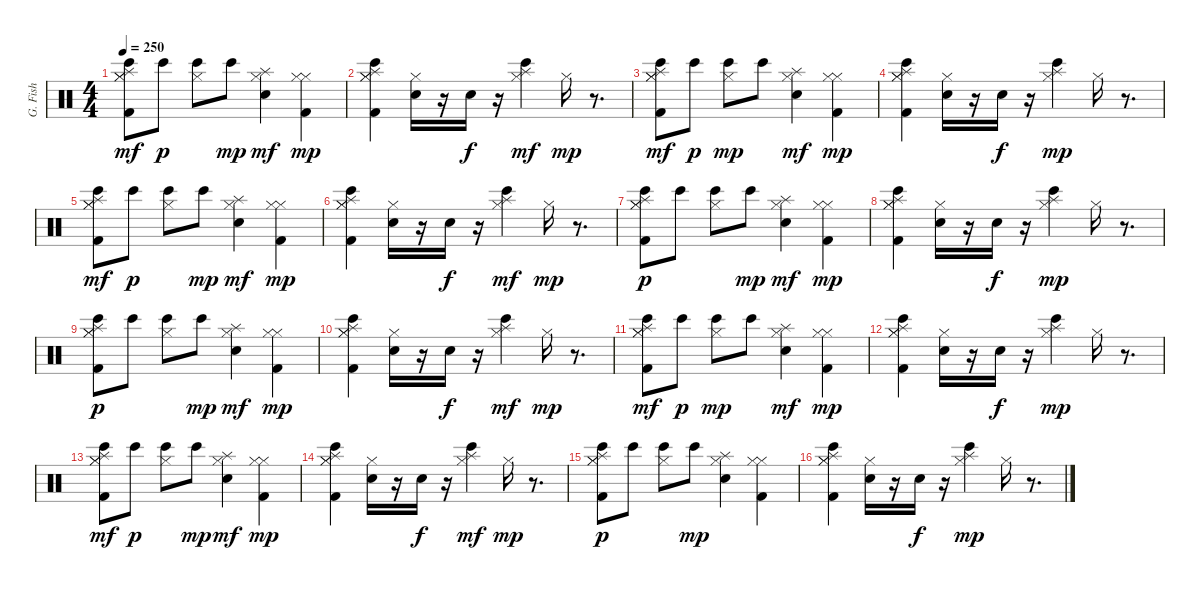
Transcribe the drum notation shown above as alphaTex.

\track ("G. Fish" "G. Fish") {instrument percussion}
\staff {score}
\articulation defaults
\ts (4 4)
\tempo 250
\clef neutral
\ks c
("Kick (hit) 2" "Hi-Hat (closed)" "Hi-Hat (closed)" "Bongo High (hit)" "Splash (hit)").8{dy mf} "Bongo High (hit)".8{dy p} ("Hi-Hat (closed)" "Bongo High (hit)").8 "Bongo High (hit)".8{dy mp} ("Hi-Hat (closed)" "Electric Snare (hit)" "Splash (hit)").4{dy mf} ("Kick (hit) 2" "Hi-Hat (closed)" "Hi-Hat (closed)").4{dy mp} |
("Kick (hit) 2" "Hi-Hat (closed)" "Hi-Hat (closed)" "Splash (hit)" "Bongo High (hit)").4 ("Electric Snare (hit)" "Hi-Hat (closed)").16 r.16 "Electric Snare (hit)".16{dy f} r.16 ("Hi-Hat (closed)" "Bongo High (hit)" "Splash (hit)").4{dy mf} "Hi-Hat (closed)".16{dy mp} r.8{d} |
("Bongo High (hit)" "Hi-Hat (closed)" "Kick (hit) 2" "Hi-Hat (closed)" "Splash (hit)").8{dy mf} "Bongo High (hit)".8{dy p} ("Bongo High (hit)" "Hi-Hat (closed)").8{dy mp} "Bongo High (hit)".8 ("Hi-Hat (closed)" "Electric Snare (hit)" "Splash (hit)").4{dy mf} ("Hi-Hat (closed)" "Kick (hit) 2" "Hi-Hat (closed)").4{dy mp} |
("Hi-Hat (closed)" "Bongo High (hit)" "Splash (hit)" "Hi-Hat (closed)" "Kick (hit) 2").4 ("Hi-Hat (closed)" "Electric Snare (hit)").16 r.16 "Electric Snare (hit)".16{dy f} r.16 ("Bongo High (hit)" "Splash (hit)" "Hi-Hat (closed)").4{dy mp} "Hi-Hat (closed)".16 r.8{d} |
("Hi-Hat (closed)" "Hi-Hat (closed)" "Kick (hit) 2" "Bongo High (hit)" "Splash (hit)").8{dy mf} "Bongo High (hit)".8{dy p} ("Hi-Hat (closed)" "Bongo High (hit)").8 "Bongo High (hit)".8{dy mp} ("Hi-Hat (closed)" "Electric Snare (hit)" "Splash (hit)").4{dy mf} ("Hi-Hat (closed)" "Kick (hit) 2" "Hi-Hat (closed)").4{dy mp} |
("Hi-Hat (closed)" "Kick (hit) 2" "Hi-Hat (closed)" "Splash (hit)" "Bongo High (hit)").4 ("Electric Snare (hit)" "Hi-Hat (closed)").16 r.16 "Electric Snare (hit)".16{dy f} r.16 ("Bongo High (hit)" "Hi-Hat (closed)" "Splash (hit)").4{dy mf} "Hi-Hat (closed)".16{dy mp} r.8{d} |
("Kick (hit) 2" "Hi-Hat (closed)" "Splash (hit)" "Bongo High (hit)" "Hi-Hat (closed)").8{dy p} "Bongo High (hit)".8 ("Hi-Hat (closed)" "Bongo High (hit)").8 "Bongo High (hit)".8{dy mp} ("Hi-Hat (closed)" "Electric Snare (hit)" "Splash (hit)").4{dy mf} ("Kick (hit) 2" "Hi-Hat (closed)" "Hi-Hat (closed)").4{dy mp} |
("Splash (hit)" "Hi-Hat (closed)" "Kick (hit) 2" "Hi-Hat (closed)" "Bongo High (hit)").4 ("Hi-Hat (closed)" "Electric Snare (hit)").16 r.16 "Electric Snare (hit)".16{dy f} r.16 ("Splash (hit)" "Hi-Hat (closed)" "Bongo High (hit)").4{dy mp} "Hi-Hat (closed)".16 r.8{d} |
("Hi-Hat (closed)" "Kick (hit) 2" "Hi-Hat (closed)" "Splash (hit)" "Bongo High (hit)").8{dy p} "Bongo High (hit)".8 ("Hi-Hat (closed)" "Bongo High (hit)").8 "Bongo High (hit)".8{dy mp} ("Hi-Hat (closed)" "Electric Snare (hit)" "Splash (hit)").4{dy mf} ("Kick (hit) 2" "Hi-Hat (closed)" "Hi-Hat (closed)").4{dy mp} |
("Kick (hit) 2" "Hi-Hat (closed)" "Hi-Hat (closed)" "Splash (hit)" "Bongo High (hit)").4 ("Electric Snare (hit)" "Hi-Hat (closed)").16 r.16 "Electric Snare (hit)".16{dy f} r.16 ("Hi-Hat (closed)" "Bongo High (hit)" "Splash (hit)").4{dy mf} "Hi-Hat (closed)".16{dy mp} r.8{d} |
("Bongo High (hit)" "Hi-Hat (closed)" "Kick (hit) 2" "Hi-Hat (closed)" "Splash (hit)").8{dy mf} "Bongo High (hit)".8{dy p} ("Bongo High (hit)" "Hi-Hat (closed)").8{dy mp} "Bongo High (hit)".8 ("Hi-Hat (closed)" "Electric Snare (hit)" "Splash (hit)").4{dy mf} ("Hi-Hat (closed)" "Kick (hit) 2" "Hi-Hat (closed)").4{dy mp} |
("Hi-Hat (closed)" "Bongo High (hit)" "Splash (hit)" "Hi-Hat (closed)" "Kick (hit) 2").4 ("Hi-Hat (closed)" "Electric Snare (hit)").16 r.16 "Electric Snare (hit)".16{dy f} r.16 ("Bongo High (hit)" "Splash (hit)" "Hi-Hat (closed)").4{dy mp} "Hi-Hat (closed)".16 r.8{d} |
("Hi-Hat (closed)" "Hi-Hat (closed)" "Kick (hit) 2" "Bongo High (hit)" "Splash (hit)").8{dy mf} "Bongo High (hit)".8{dy p} ("Hi-Hat (closed)" "Bongo High (hit)").8 "Bongo High (hit)".8{dy mp} ("Hi-Hat (closed)" "Electric Snare (hit)" "Splash (hit)").4{dy mf} ("Hi-Hat (closed)" "Kick (hit) 2" "Hi-Hat (closed)").4{dy mp} |
("Hi-Hat (closed)" "Kick (hit) 2" "Hi-Hat (closed)" "Splash (hit)" "Bongo High (hit)").4 ("Electric Snare (hit)" "Hi-Hat (closed)").16 r.16 "Electric Snare (hit)".16{dy f} r.16 ("Bongo High (hit)" "Hi-Hat (closed)" "Splash (hit)").4{dy mf} "Hi-Hat (closed)".16{dy mp} r.8{d} |
("Splash (hit)" "Kick (hit) 2" "Hi-Hat (closed)" "Bongo High (hit)" "Hi-Hat (closed)").8{dy p} "Bongo High (hit)".8 ("Hi-Hat (closed)" "Bongo High (hit)").8 "Bongo High (hit)".8{dy mp} ("Splash (hit)" "Hi-Hat (closed)" "Electric Snare (hit)").4 ("Kick (hit) 2" "Hi-Hat (closed)" "Hi-Hat (closed)").4 |
("Splash (hit)" "Kick (hit) 2" "Hi-Hat (closed)" "Hi-Hat (closed)" "Bongo High (hit)").4 ("Electric Snare (hit)" "Hi-Hat (closed)").16 r.16 "Electric Snare (hit)".16{dy f} r.16 ("Splash (hit)" "Hi-Hat (closed)" "Bongo High (hit)").4{dy mp} "Hi-Hat (closed)".16 r.8{d}
